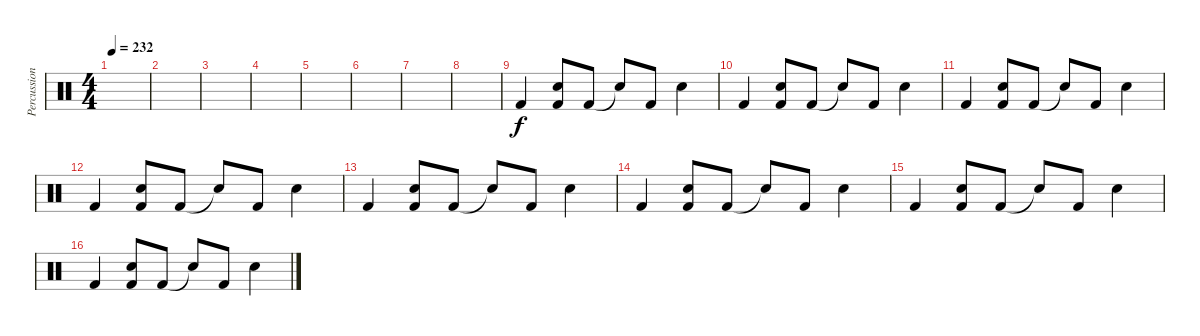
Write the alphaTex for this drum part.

\track ("Percussion" "Percussion") {instrument percussion}
\staff {score}
\articulation defaults
\ts (4 4)
\tempo 232
\clef neutral
\ks c
|
|
|
|
|
|
|
|
"Kick (hit) 2".4 ("Electric Snare (hit)" "Kick (hit) 2").8 "Kick (hit) 2".8 "Snare (hit)"{t}.8 "Kick (hit) 2".8 "Electric Snare (hit)".4 |
"Kick (hit) 2".4 ("Electric Snare (hit)" "Kick (hit) 2").8 "Kick (hit) 2".8 "Snare (hit)"{t}.8 "Kick (hit) 2".8 "Electric Snare (hit)".4 |
"Kick (hit) 2".4 ("Electric Snare (hit)" "Kick (hit) 2").8 "Kick (hit) 2".8 "Snare (hit)"{t}.8 "Kick (hit) 2".8 "Electric Snare (hit)".4 |
"Kick (hit) 2".4 ("Electric Snare (hit)" "Kick (hit) 2").8 "Kick (hit) 2".8 "Snare (hit)"{t}.8 "Kick (hit) 2".8 "Electric Snare (hit)".4 |
"Kick (hit) 2".4 ("Electric Snare (hit)" "Kick (hit) 2").8 "Kick (hit) 2".8 "Snare (hit)"{t}.8 "Kick (hit) 2".8 "Electric Snare (hit)".4 |
"Kick (hit) 2".4 ("Electric Snare (hit)" "Kick (hit) 2").8 "Kick (hit) 2".8 "Snare (hit)"{t}.8 "Kick (hit) 2".8 "Electric Snare (hit)".4 |
"Kick (hit) 2".4 ("Electric Snare (hit)" "Kick (hit) 2").8 "Kick (hit) 2".8 "Snare (hit)"{t}.8 "Kick (hit) 2".8 "Electric Snare (hit)".4 |
"Kick (hit) 2".4 ("Electric Snare (hit)" "Kick (hit) 2").8 "Kick (hit) 2".8 "Snare (hit)"{t}.8 "Kick (hit) 2".8 "Electric Snare (hit)".4
